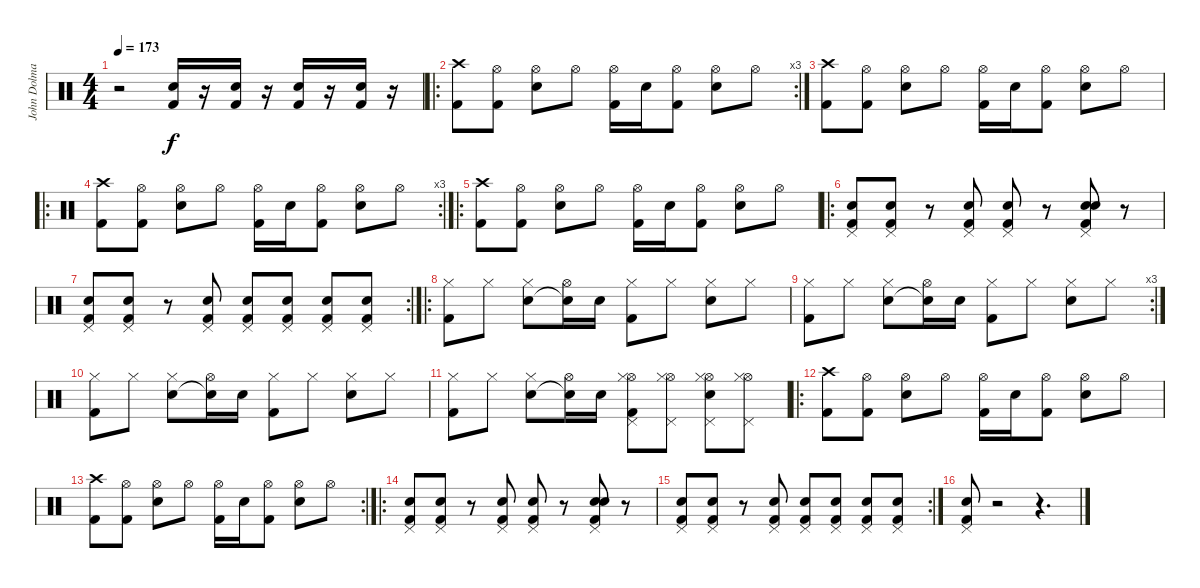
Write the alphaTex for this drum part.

\track ("John Dolmayan" "John Dolma") {instrument percussion}
\staff {score}
\articulation defaults
\ts (4 4)
\tempo 173
\clef neutral
\ks c
r.2{dy f} ("Electric Snare (hit)" "Kick (hit) 2").16 r.16 ("Electric Snare (hit)" "Kick (hit) 2").16 r.16 ("Electric Snare (hit)" "Kick (hit) 2").16 r.16 ("Electric Snare (hit)" "Kick (hit) 2").16 r.16 |
\ro
\rc 3
("Crash high (hit)" "Kick (hit) 2").8 ("Hi-Hat (open)" "Kick (hit) 2").8 ("Hi-Hat (open)" "Electric Snare (hit)").8 "Hi-Hat (open)".8 ("Hi-Hat (open)" "Kick (hit) 2").16 "Electric Snare (hit)".16 ("Hi-Hat (open)" "Kick (hit) 2").8 ("Hi-Hat (open)" "Electric Snare (hit)").8 "Hi-Hat (open)".8 |
("Crash high (hit)" "Kick (hit) 2").8 ("Hi-Hat (open)" "Kick (hit) 2").8 ("Hi-Hat (open)" "Electric Snare (hit)").8 "Hi-Hat (open)".8 ("Hi-Hat (open)" "Kick (hit) 2").16 "Electric Snare (hit)".16 ("Hi-Hat (open)" "Kick (hit) 2").8 ("Hi-Hat (open)" "Electric Snare (hit)").8 "Hi-Hat (open)".8 |
\ro
\rc 3
("Crash high (hit)" "Kick (hit) 2").8 ("Hi-Hat (open)" "Kick (hit) 2").8 ("Hi-Hat (open)" "Electric Snare (hit)").8 "Hi-Hat (open)".8 ("Hi-Hat (open)" "Kick (hit) 2").16 "Electric Snare (hit)".16 ("Hi-Hat (open)" "Kick (hit) 2").8 ("Hi-Hat (open)" "Electric Snare (hit)").8 "Hi-Hat (open)".8 |
\ro
("Crash high (hit)" "Kick (hit) 2").8 ("Hi-Hat (open)" "Kick (hit) 2").8 ("Hi-Hat (open)" "Electric Snare (hit)").8 "Hi-Hat (open)".8 ("Hi-Hat (open)" "Kick (hit) 2").16 "Electric Snare (hit)".16 ("Hi-Hat (open)" "Kick (hit) 2").8 ("Hi-Hat (open)" "Electric Snare (hit)").8 "Hi-Hat (open)".8 |
\ro
("Pedal Hi-Hat (hit)" "Electric Snare (hit)" "Kick (hit) 2").8 ("Pedal Hi-Hat (hit)" "Electric Snare (hit)" "Kick (hit) 2").8 r.8 ("Pedal Hi-Hat (hit)" "Electric Snare (hit)" "Kick (hit) 2").8 ("Pedal Hi-Hat (hit)" "Electric Snare (hit)" "Kick (hit) 2").8 r.8 ("Pedal Hi-Hat (hit)" "Electric Snare (hit)" "Electric Snare (hit)" "Kick (hit) 2").8 r.8 |
\rc 2
("Pedal Hi-Hat (hit)" "Electric Snare (hit)" "Kick (hit) 2").8 ("Pedal Hi-Hat (hit)" "Electric Snare (hit)" "Kick (hit) 2").8 r.8 ("Pedal Hi-Hat (hit)" "Electric Snare (hit)" "Kick (hit) 2").8 ("Pedal Hi-Hat (hit)" "Electric Snare (hit)" "Kick (hit) 2").8 ("Pedal Hi-Hat (hit)" "Electric Snare (hit)" "Kick (hit) 2").8 ("Pedal Hi-Hat (hit)" "Electric Snare (hit)" "Kick (hit) 2").8 ("Pedal Hi-Hat (hit)" "Electric Snare (hit)" "Kick (hit) 2").8 |
\ro
("Hi-Hat (closed)" "Kick (hit) 2").8 "Hi-Hat (closed)".8 ("Hi-Hat (closed)" "Electric Snare (hit)").8 ("Hi-Hat (open)" "Snare (hit)"{t}).16 "Electric Snare (hit)".16 ("Hi-Hat (closed)" "Kick (hit) 2").8 "Hi-Hat (closed)".8 ("Hi-Hat (closed)" "Electric Snare (hit)").8 "Hi-Hat (closed)".8 |
\rc 3
("Hi-Hat (closed)" "Kick (hit) 2").8 "Hi-Hat (closed)".8 ("Hi-Hat (closed)" "Electric Snare (hit)").8 ("Hi-Hat (open)" "Snare (hit)"{t}).16 "Electric Snare (hit)".16 ("Hi-Hat (closed)" "Kick (hit) 2").8 "Hi-Hat (closed)".8 ("Hi-Hat (closed)" "Electric Snare (hit)").8 "Hi-Hat (closed)".8 |
("Hi-Hat (closed)" "Kick (hit) 2").8 "Hi-Hat (closed)".8 ("Hi-Hat (closed)" "Electric Snare (hit)").8 ("Hi-Hat (open)" "Snare (hit)"{t}).16 "Electric Snare (hit)".16 ("Hi-Hat (closed)" "Kick (hit) 2").8 "Hi-Hat (closed)".8 ("Hi-Hat (closed)" "Electric Snare (hit)").8 "Hi-Hat (closed)".8 |
("Hi-Hat (closed)" "Kick (hit) 2").8 "Hi-Hat (closed)".8 ("Hi-Hat (closed)" "Electric Snare (hit)").8 ("Hi-Hat (open)" "Snare (hit)"{t}).16 "Electric Snare (hit)".16 ("Hi-Hat (open)" "Pedal Hi-Hat (hit)" "Hi-Hat (closed)" "Kick (hit) 2").8 ("Hi-Hat (open)" "Pedal Hi-Hat (hit)" "Hi-Hat (closed)").8 ("Hi-Hat (open)" "Pedal Hi-Hat (hit)" "Hi-Hat (closed)" "Electric Snare (hit)").8 ("Hi-Hat (open)" "Pedal Hi-Hat (hit)" "Hi-Hat (closed)").8 |
\ro
("Crash high (hit)" "Kick (hit) 2").8 ("Hi-Hat (open)" "Kick (hit) 2").8 ("Hi-Hat (open)" "Electric Snare (hit)").8 "Hi-Hat (open)".8 ("Hi-Hat (open)" "Kick (hit) 2").16 "Electric Snare (hit)".16 ("Hi-Hat (open)" "Kick (hit) 2").8 ("Hi-Hat (open)" "Electric Snare (hit)").8 "Hi-Hat (open)".8 |
\rc 2
("Crash high (hit)" "Kick (hit) 2").8 ("Hi-Hat (open)" "Kick (hit) 2").8 ("Hi-Hat (open)" "Electric Snare (hit)").8 "Hi-Hat (open)".8 ("Hi-Hat (open)" "Kick (hit) 2").16 "Electric Snare (hit)".16 ("Hi-Hat (open)" "Kick (hit) 2").8 ("Hi-Hat (open)" "Electric Snare (hit)").8 "Hi-Hat (open)".8 |
\ro
("Pedal Hi-Hat (hit)" "Electric Snare (hit)" "Kick (hit) 2").8 ("Pedal Hi-Hat (hit)" "Electric Snare (hit)" "Kick (hit) 2").8 r.8 ("Pedal Hi-Hat (hit)" "Electric Snare (hit)" "Kick (hit) 2").8 ("Pedal Hi-Hat (hit)" "Electric Snare (hit)" "Kick (hit) 2").8 r.8 ("Pedal Hi-Hat (hit)" "Electric Snare (hit)" "Electric Snare (hit)" "Kick (hit) 2").8 r.8 |
\rc 2
("Pedal Hi-Hat (hit)" "Electric Snare (hit)" "Kick (hit) 2").8 ("Pedal Hi-Hat (hit)" "Electric Snare (hit)" "Kick (hit) 2").8 r.8 ("Pedal Hi-Hat (hit)" "Electric Snare (hit)" "Kick (hit) 2").8 ("Pedal Hi-Hat (hit)" "Electric Snare (hit)" "Kick (hit) 2").8 ("Pedal Hi-Hat (hit)" "Electric Snare (hit)" "Kick (hit) 2").8 ("Pedal Hi-Hat (hit)" "Electric Snare (hit)" "Kick (hit) 2").8 ("Pedal Hi-Hat (hit)" "Electric Snare (hit)" "Kick (hit) 2").8 |
("Pedal Hi-Hat (hit)" "Electric Snare (hit)" "Kick (hit) 2").8 r.2 r.4{d}
